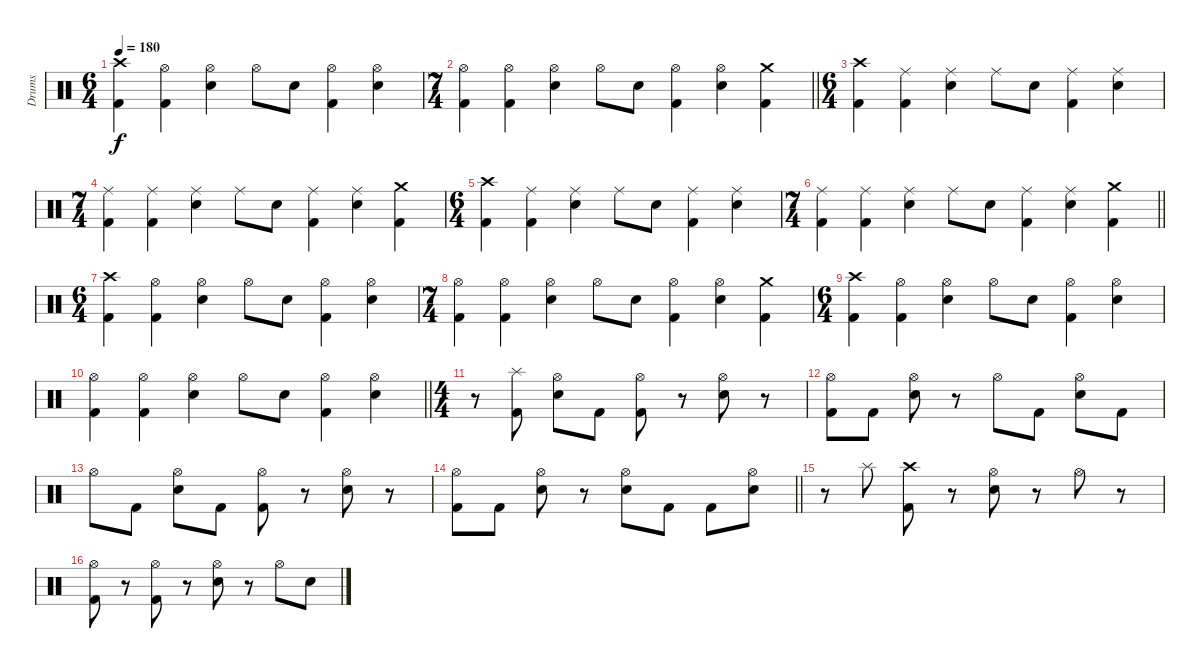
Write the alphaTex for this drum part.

\track ("Drums" "Drums") {instrument percussion}
\staff {score}
\articulation defaults
\ts (6 4)
\tempo 180
\clef neutral
\ks c
("Crash high (hit)" "Kick (hit) 2").4{dy f} ("Hi-Hat (open)" "Kick (hit) 2").4 ("Hi-Hat (open)" "Electric Snare (hit)").4 "Hi-Hat (open)".8 "Electric Snare (hit)".8 ("Hi-Hat (open)" "Kick (hit) 2").4 ("Hi-Hat (open)" "Electric Snare (hit)").4 |
\ts (7 4)
\barLineRight lightlight
("Hi-Hat (open)" "Kick (hit) 2").4 ("Hi-Hat (open)" "Kick (hit) 2").4 ("Hi-Hat (open)" "Electric Snare (hit)").4 "Hi-Hat (open)".8 "Electric Snare (hit)".8 ("Hi-Hat (open)" "Kick (hit) 2").4 ("Hi-Hat (open)" "Electric Snare (hit)").4 ("Crash medium (hit)" "Kick (hit) 2").4 |
\ts (6 4)
("Crash high (hit)" "Kick (hit) 2").4 ("Ride (middle)" "Kick (hit) 2").4 ("Ride (middle)" "Electric Snare (hit)").4 "Ride (middle)".8 "Electric Snare (hit)".8 ("Ride (middle)" "Kick (hit) 2").4 ("Ride (middle)" "Electric Snare (hit)").4 |
\ts (7 4)
("Ride (middle)" "Kick (hit) 2").4 ("Ride (middle)" "Kick (hit) 2").4 ("Ride (middle)" "Electric Snare (hit)").4 "Ride (middle)".8 "Electric Snare (hit)".8 ("Ride (middle)" "Kick (hit) 2").4 ("Ride (middle)" "Electric Snare (hit)").4 ("Crash medium (hit)" "Kick (hit) 2").4 |
\ts (6 4)
("Crash high (hit)" "Kick (hit) 2").4 ("Ride (middle)" "Kick (hit) 2").4 ("Ride (middle)" "Electric Snare (hit)").4 "Ride (middle)".8 "Electric Snare (hit)".8 ("Ride (middle)" "Kick (hit) 2").4 ("Ride (middle)" "Electric Snare (hit)").4 |
\ts (7 4)
\barLineRight lightlight
("Ride (middle)" "Kick (hit) 2").4 ("Ride (middle)" "Kick (hit) 2").4 ("Ride (middle)" "Electric Snare (hit)").4 "Ride (middle)".8 "Electric Snare (hit)".8 ("Ride (middle)" "Kick (hit) 2").4 ("Ride (middle)" "Electric Snare (hit)").4 ("Crash medium (hit)" "Kick (hit) 2").4 |
\ts (6 4)
("Crash high (hit)" "Kick (hit) 2").4 ("Hi-Hat (open)" "Kick (hit) 2").4 ("Hi-Hat (open)" "Electric Snare (hit)").4 "Hi-Hat (open)".8 "Electric Snare (hit)".8 ("Hi-Hat (open)" "Kick (hit) 2").4 ("Hi-Hat (open)" "Electric Snare (hit)").4 |
\ts (7 4)
("Hi-Hat (open)" "Kick (hit) 2").4 ("Hi-Hat (open)" "Kick (hit) 2").4 ("Hi-Hat (open)" "Electric Snare (hit)").4 "Hi-Hat (open)".8 "Electric Snare (hit)".8 ("Hi-Hat (open)" "Kick (hit) 2").4 ("Hi-Hat (open)" "Electric Snare (hit)").4 ("Crash medium (hit)" "Kick (hit) 2").4 |
\ts (6 4)
("Crash high (hit)" "Kick (hit) 2").4 ("Hi-Hat (open)" "Kick (hit) 2").4 ("Hi-Hat (open)" "Electric Snare (hit)").4 "Hi-Hat (open)".8 "Electric Snare (hit)".8 ("Hi-Hat (open)" "Kick (hit) 2").4 ("Hi-Hat (open)" "Electric Snare (hit)").4 |
\barLineRight lightlight
("Hi-Hat (open)" "Kick (hit) 2").4 ("Hi-Hat (open)" "Kick (hit) 2").4 ("Hi-Hat (open)" "Electric Snare (hit)").4 "Hi-Hat (open)".8 "Electric Snare (hit)".8 ("Hi-Hat (open)" "Kick (hit) 2").4 ("Hi-Hat (open)" "Electric Snare (hit)").4 |
\ts (4 4)
r.8 ("Splash (hit)" "Kick (hit) 2").8 ("Hi-Hat (open)" "Electric Snare (hit)").8 "Kick (hit) 2".8 ("Hi-Hat (open)" "Kick (hit) 2").8 r.8 ("Hi-Hat (open)" "Electric Snare (hit)").8 r.8 |
("Hi-Hat (open)" "Kick (hit) 2").8 "Kick (hit) 2".8 ("Hi-Hat (open)" "Electric Snare (hit)").8 r.8 "Hi-Hat (open)".8 "Kick (hit) 2".8 ("Hi-Hat (open)" "Electric Snare (hit)").8 "Kick (hit) 2".8 |
"Hi-Hat (open)".8 "Kick (hit) 2".8 ("Hi-Hat (open)" "Electric Snare (hit)").8 "Kick (hit) 2".8 ("Hi-Hat (open)" "Kick (hit) 2").8 r.8 ("Hi-Hat (open)" "Electric Snare (hit)").8 r.8 |
\barLineRight lightlight
("Hi-Hat (open)" "Kick (hit) 2").8 "Kick (hit) 2".8 ("Hi-Hat (open)" "Electric Snare (hit)").8 r.8 ("Hi-Hat (open)" "Electric Snare (hit)").8 "Kick (hit) 2".8 "Kick (hit) 2".8 ("Hi-Hat (open)" "Electric Snare (hit)").8 |
r.8 "Splash (hit)".8 ("Crash high (hit)" "Kick (hit) 2").8 r.8 ("Hi-Hat (open)" "Electric Snare (hit)").8 r.8 "Hi-Hat (open)".8 r.8 |
("Hi-Hat (open)" "Kick (hit) 2").8 r.8 ("Hi-Hat (open)" "Kick (hit) 2").8 r.8 ("Hi-Hat (open)" "Electric Snare (hit)").8 r.8 "Hi-Hat (open)".8 "Electric Snare (hit)".8
